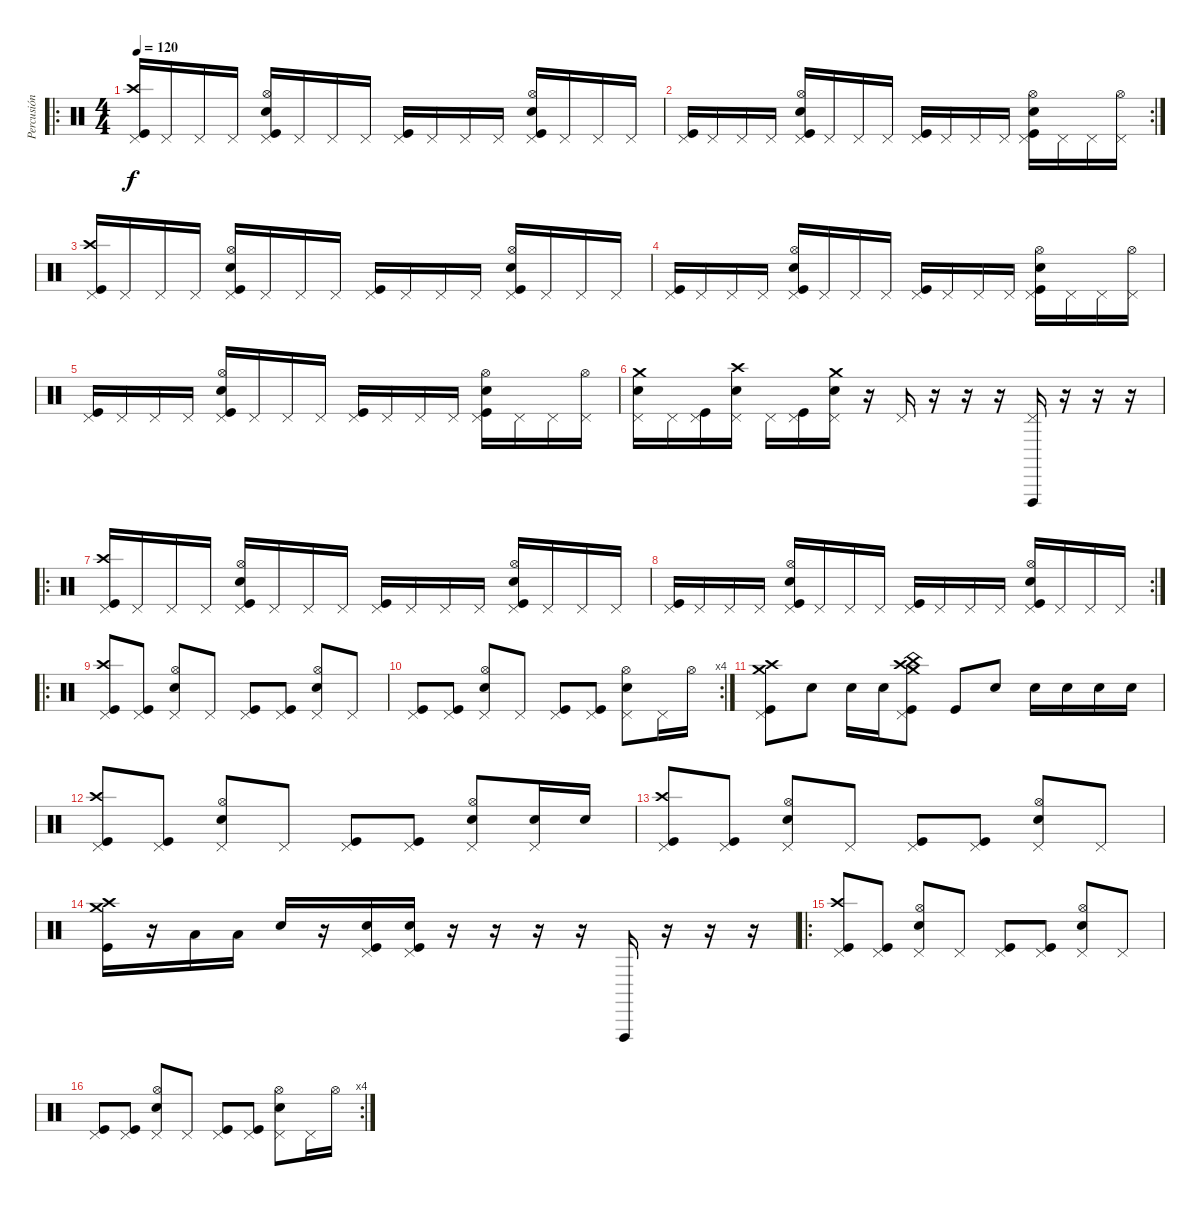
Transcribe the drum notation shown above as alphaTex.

\track ("Percusión" "Percusión") {instrument percussion}
\staff {score}
\articulation defaults
\ro
\ts (4 4)
\tempo 120
\clef neutral
\ks c
("Pedal Hi-Hat (hit)" "Crash high (hit)" "Kick (hit)").16{dy f volume 13} "Pedal Hi-Hat (hit)".16 "Pedal Hi-Hat (hit)".16 "Pedal Hi-Hat (hit)".16 ("Pedal Hi-Hat (hit)" "Hi-Hat (open)" "Snare (hit) 2" "Kick (hit)").16 "Pedal Hi-Hat (hit)".16 "Pedal Hi-Hat (hit)".16 "Pedal Hi-Hat (hit)".16 ("Pedal Hi-Hat (hit)" "Kick (hit)").16 "Pedal Hi-Hat (hit)".16 "Pedal Hi-Hat (hit)".16 "Pedal Hi-Hat (hit)".16 ("Pedal Hi-Hat (hit)" "Hi-Hat (open)" "Snare (hit) 2" "Kick (hit)").16 "Pedal Hi-Hat (hit)".16 "Pedal Hi-Hat (hit)".16 "Pedal Hi-Hat (hit)".16 |
\rc 2
("Pedal Hi-Hat (hit)" "Kick (hit)").16 "Pedal Hi-Hat (hit)".16 "Pedal Hi-Hat (hit)".16 "Pedal Hi-Hat (hit)".16 ("Pedal Hi-Hat (hit)" "Hi-Hat (open)" "Snare (hit) 2" "Kick (hit)").16 "Pedal Hi-Hat (hit)".16 "Pedal Hi-Hat (hit)".16 "Pedal Hi-Hat (hit)".16 ("Pedal Hi-Hat (hit)" "Kick (hit)").16 "Pedal Hi-Hat (hit)".16 "Pedal Hi-Hat (hit)".16 "Pedal Hi-Hat (hit)".16 ("Pedal Hi-Hat (hit)" "Hi-Hat (open)" "Snare (hit) 2" "Kick (hit)").16 "Pedal Hi-Hat (hit)".16 "Pedal Hi-Hat (hit)".16 ("Pedal Hi-Hat (hit)" "Hi-Hat (open)").16 |
("Pedal Hi-Hat (hit)" "Crash high (hit)" "Kick (hit)").16 "Pedal Hi-Hat (hit)".16 "Pedal Hi-Hat (hit)".16 "Pedal Hi-Hat (hit)".16 ("Pedal Hi-Hat (hit)" "Hi-Hat (open)" "Snare (hit) 2" "Kick (hit)").16 "Pedal Hi-Hat (hit)".16 "Pedal Hi-Hat (hit)".16 "Pedal Hi-Hat (hit)".16 ("Pedal Hi-Hat (hit)" "Kick (hit)").16 "Pedal Hi-Hat (hit)".16 "Pedal Hi-Hat (hit)".16 "Pedal Hi-Hat (hit)".16 ("Pedal Hi-Hat (hit)" "Hi-Hat (open)" "Snare (hit) 2" "Kick (hit)").16 "Pedal Hi-Hat (hit)".16 "Pedal Hi-Hat (hit)".16 "Pedal Hi-Hat (hit)".16 |
("Pedal Hi-Hat (hit)" "Kick (hit)").16 "Pedal Hi-Hat (hit)".16 "Pedal Hi-Hat (hit)".16 "Pedal Hi-Hat (hit)".16 ("Pedal Hi-Hat (hit)" "Hi-Hat (open)" "Snare (hit) 2" "Kick (hit)").16 "Pedal Hi-Hat (hit)".16 "Pedal Hi-Hat (hit)".16 "Pedal Hi-Hat (hit)".16 ("Pedal Hi-Hat (hit)" "Kick (hit)").16 "Pedal Hi-Hat (hit)".16 "Pedal Hi-Hat (hit)".16 "Pedal Hi-Hat (hit)".16 ("Pedal Hi-Hat (hit)" "Hi-Hat (open)" "Snare (hit) 2" "Kick (hit)").16 "Pedal Hi-Hat (hit)".16 "Pedal Hi-Hat (hit)".16 ("Pedal Hi-Hat (hit)" "Hi-Hat (open)").16 |
("Pedal Hi-Hat (hit)" "Kick (hit)").16 "Pedal Hi-Hat (hit)".16 "Pedal Hi-Hat (hit)".16 "Pedal Hi-Hat (hit)".16 ("Pedal Hi-Hat (hit)" "Hi-Hat (open)" "Snare (hit) 2" "Kick (hit)").16 "Pedal Hi-Hat (hit)".16 "Pedal Hi-Hat (hit)".16 "Pedal Hi-Hat (hit)".16 ("Pedal Hi-Hat (hit)" "Kick (hit)").16 "Pedal Hi-Hat (hit)".16 "Pedal Hi-Hat (hit)".16 "Pedal Hi-Hat (hit)".16 ("Pedal Hi-Hat (hit)" "Hi-Hat (open)" "Snare (hit) 2" "Kick (hit)").16 "Pedal Hi-Hat (hit)".16 "Pedal Hi-Hat (hit)".16 ("Pedal Hi-Hat (hit)" "Hi-Hat (open)").16 |
("Pedal Hi-Hat (hit)" "Crash medium (hit)" "Snare (hit) 2").16 "Pedal Hi-Hat (hit)".16 ("Pedal Hi-Hat (hit)" "Kick (hit)").16 ("Pedal Hi-Hat (hit)" "Crash high (hit)" "Snare (hit) 2").16 "Pedal Hi-Hat (hit)".16 ("Pedal Hi-Hat (hit)" "Kick (hit)").16 ("Pedal Hi-Hat (hit)" "Crash medium (hit)" "Snare (hit) 2").16 r.16 "Pedal Hi-Hat (hit)".16 r.16 r.16 r.16 ("Pedal Hi-Hat (hit)" "Vibraslap (hit)").16 r.16 r.16 r.16 |
\ro
("Pedal Hi-Hat (hit)" "Crash high (hit)" "Kick (hit)").16 "Pedal Hi-Hat (hit)".16 "Pedal Hi-Hat (hit)".16 "Pedal Hi-Hat (hit)".16 ("Pedal Hi-Hat (hit)" "Hi-Hat (open)" "Snare (hit) 2" "Kick (hit)").16 "Pedal Hi-Hat (hit)".16 "Pedal Hi-Hat (hit)".16 "Pedal Hi-Hat (hit)".16 ("Pedal Hi-Hat (hit)" "Kick (hit)").16 "Pedal Hi-Hat (hit)".16 "Pedal Hi-Hat (hit)".16 "Pedal Hi-Hat (hit)".16 ("Pedal Hi-Hat (hit)" "Hi-Hat (open)" "Snare (hit) 2" "Kick (hit)").16 "Pedal Hi-Hat (hit)".16 "Pedal Hi-Hat (hit)".16 "Pedal Hi-Hat (hit)".16 |
\rc 2
("Pedal Hi-Hat (hit)" "Kick (hit)").16 "Pedal Hi-Hat (hit)".16 "Pedal Hi-Hat (hit)".16 "Pedal Hi-Hat (hit)".16 ("Pedal Hi-Hat (hit)" "Hi-Hat (open)" "Snare (hit) 2" "Kick (hit)").16 "Pedal Hi-Hat (hit)".16 "Pedal Hi-Hat (hit)".16 "Pedal Hi-Hat (hit)".16 ("Pedal Hi-Hat (hit)" "Kick (hit)").16 "Pedal Hi-Hat (hit)".16 "Pedal Hi-Hat (hit)".16 "Pedal Hi-Hat (hit)".16 ("Pedal Hi-Hat (hit)" "Hi-Hat (open)" "Snare (hit) 2" "Kick (hit)").16 "Pedal Hi-Hat (hit)".16 "Pedal Hi-Hat (hit)".16 "Pedal Hi-Hat (hit)".16 |
\ro
("Pedal Hi-Hat (hit)" "Crash high (hit)" "Kick (hit)").8{volume 11} ("Pedal Hi-Hat (hit)" "Kick (hit)").8 ("Pedal Hi-Hat (hit)" "Hi-Hat (open)" "Snare (hit) 2").8 "Pedal Hi-Hat (hit)".8 ("Pedal Hi-Hat (hit)" "Kick (hit)").8 ("Pedal Hi-Hat (hit)" "Kick (hit)").8 ("Pedal Hi-Hat (hit)" "Hi-Hat (open)" "Snare (hit) 2").8 "Pedal Hi-Hat (hit)".8 |
\rc 4
("Pedal Hi-Hat (hit)" "Kick (hit)").8 ("Pedal Hi-Hat (hit)" "Kick (hit)").8 ("Pedal Hi-Hat (hit)" "Hi-Hat (open)" "Snare (hit) 2").8 "Pedal Hi-Hat (hit)".8 ("Pedal Hi-Hat (hit)" "Kick (hit)").8 ("Pedal Hi-Hat (hit)" "Kick (hit)").8 ("Pedal Hi-Hat (hit)" "Hi-Hat (open)" "Snare (hit) 2").8 "Pedal Hi-Hat (hit)".16 "Hi-Hat (open)".16 |
("Pedal Hi-Hat (hit)" "Crash high (hit)" "Crash medium (hit)" "Kick (hit)").8{volume 10} "Snare (hit) 2".8 "Snare (hit) 2".16 "Snare (hit) 2".16 ("Pedal Hi-Hat (hit)" "Crash medium (hit)" "China (hit)" "Crash high (hit)" "Kick (hit)").8 "Kick (hit)".8 "Snare (hit) 2".8 "Snare (hit) 2".16 "Snare (hit) 2".16 "Snare (hit) 2".16 "Snare (hit) 2".16 |
("Pedal Hi-Hat (hit)" "Crash high (hit)" "Kick (hit)").8 ("Pedal Hi-Hat (hit)" "Kick (hit)").8 ("Pedal Hi-Hat (hit)" "Hi-Hat (open)" "Snare (hit) 2").8 "Pedal Hi-Hat (hit)".8 ("Pedal Hi-Hat (hit)" "Kick (hit)").8 ("Pedal Hi-Hat (hit)" "Kick (hit)").8 ("Pedal Hi-Hat (hit)" "Hi-Hat (open)" "Snare (hit) 2").8 ("Pedal Hi-Hat (hit)" "Snare (hit) 2").16 "Snare (hit) 2".16 |
("Pedal Hi-Hat (hit)" "Crash high (hit)" "Kick (hit)").8 ("Pedal Hi-Hat (hit)" "Kick (hit)").8 ("Pedal Hi-Hat (hit)" "Hi-Hat (open)" "Snare (hit) 2").8 "Pedal Hi-Hat (hit)".8 ("Pedal Hi-Hat (hit)" "Kick (hit)").8 ("Pedal Hi-Hat (hit)" "Kick (hit)").8 ("Pedal Hi-Hat (hit)" "Hi-Hat (open)" "Snare (hit) 2").8 "Pedal Hi-Hat (hit)".8 |
("Crash high (hit)" "Crash medium (hit)" "Kick (hit)").16 r.16 "Low Tom (hit)".16 "Low Tom (hit)".16 "Snare (hit) 2".16 r.16 ("Pedal Hi-Hat (hit)" "Snare (hit) 2" "Kick (hit)").16 ("Pedal Hi-Hat (hit)" "Snare (hit) 2" "Kick (hit)").16 r.16 r.16 r.16 r.16 "Vibraslap (hit)".16 r.16 r.16 r.16 |
\ro
("Pedal Hi-Hat (hit)" "Crash high (hit)" "Kick (hit)").8{volume 11} ("Pedal Hi-Hat (hit)" "Kick (hit)").8 ("Pedal Hi-Hat (hit)" "Hi-Hat (open)" "Snare (hit) 2").8 "Pedal Hi-Hat (hit)".8 ("Pedal Hi-Hat (hit)" "Kick (hit)").8 ("Pedal Hi-Hat (hit)" "Kick (hit)").8 ("Pedal Hi-Hat (hit)" "Hi-Hat (open)" "Snare (hit) 2").8 "Pedal Hi-Hat (hit)".8 |
\rc 4
("Pedal Hi-Hat (hit)" "Kick (hit)").8 ("Pedal Hi-Hat (hit)" "Kick (hit)").8 ("Pedal Hi-Hat (hit)" "Hi-Hat (open)" "Snare (hit) 2").8 "Pedal Hi-Hat (hit)".8 ("Pedal Hi-Hat (hit)" "Kick (hit)").8 ("Pedal Hi-Hat (hit)" "Kick (hit)").8 ("Pedal Hi-Hat (hit)" "Hi-Hat (open)" "Snare (hit) 2").8 "Pedal Hi-Hat (hit)".16 "Hi-Hat (open)".16
